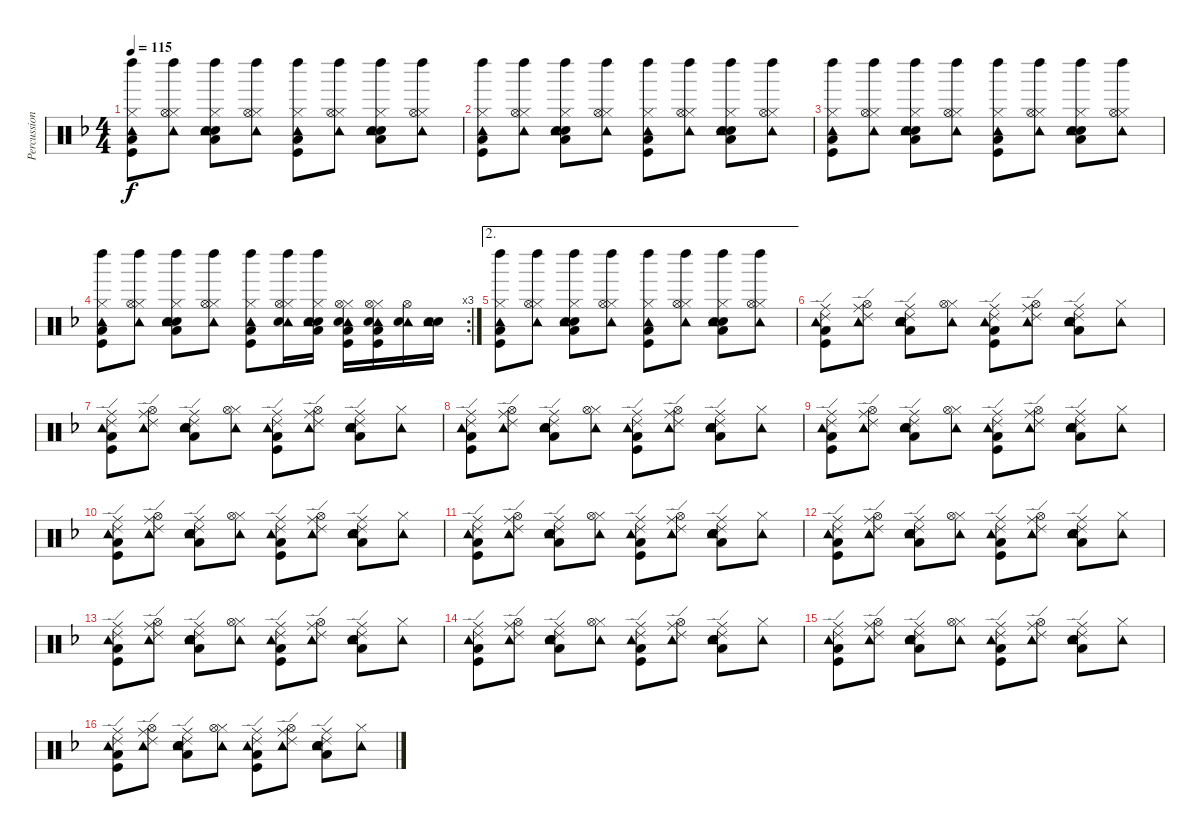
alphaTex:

\track ("Percussion" "Percussion") {instrument percussion}
\staff {score}
\articulation defaults
\ts (4 4)
\tempo 115
\clef neutral
\ks dminor
("Left Maraca (hit)" "Hi-Hat (closed)" "Tambourine (hit)" "Kick (hit)" "Low Floor Tom (hit)").8{dy f} ("Left Maraca (hit)" "Hi-Hat (closed)" "Hi-Hat (open)" "Tambourine (hit)").8 ("Left Maraca (hit)" "Hi-Hat (closed)" "Electric Snare (hit)" "Tambourine (hit)" "Snare (hit) 2" "Low Tom (hit)").8 ("Left Maraca (hit)" "Hi-Hat (closed)" "Hi-Hat (open)" "Tambourine (hit)").8 ("Left Maraca (hit)" "Hi-Hat (closed)" "Tambourine (hit)" "Kick (hit)" "Low Floor Tom (hit)").8 ("Left Maraca (hit)" "Hi-Hat (closed)" "Hi-Hat (open)" "Tambourine (hit)").8 ("Left Maraca (hit)" "Hi-Hat (closed)" "Electric Snare (hit)" "Tambourine (hit)" "Snare (hit) 2" "Low Tom (hit)").8 ("Left Maraca (hit)" "Hi-Hat (closed)" "Hi-Hat (open)" "Tambourine (hit)").8 |
("Left Maraca (hit)" "Hi-Hat (closed)" "Tambourine (hit)" "Kick (hit)" "Low Floor Tom (hit)").8 ("Left Maraca (hit)" "Hi-Hat (closed)" "Hi-Hat (open)" "Tambourine (hit)").8 ("Left Maraca (hit)" "Hi-Hat (closed)" "Electric Snare (hit)" "Tambourine (hit)" "Snare (hit) 2" "Low Tom (hit)").8 ("Left Maraca (hit)" "Hi-Hat (closed)" "Hi-Hat (open)" "Tambourine (hit)").8 ("Left Maraca (hit)" "Hi-Hat (closed)" "Tambourine (hit)" "Kick (hit)" "Low Floor Tom (hit)").8 ("Left Maraca (hit)" "Hi-Hat (closed)" "Hi-Hat (open)" "Tambourine (hit)").8 ("Left Maraca (hit)" "Hi-Hat (closed)" "Electric Snare (hit)" "Tambourine (hit)" "Snare (hit) 2" "Low Tom (hit)").8 ("Left Maraca (hit)" "Hi-Hat (closed)" "Hi-Hat (open)" "Tambourine (hit)").8 |
("Left Maraca (hit)" "Hi-Hat (closed)" "Tambourine (hit)" "Kick (hit)" "Low Floor Tom (hit)").8 ("Left Maraca (hit)" "Hi-Hat (closed)" "Hi-Hat (open)" "Tambourine (hit)").8 ("Left Maraca (hit)" "Hi-Hat (closed)" "Electric Snare (hit)" "Tambourine (hit)" "Snare (hit) 2" "Low Tom (hit)").8 ("Left Maraca (hit)" "Hi-Hat (closed)" "Hi-Hat (open)" "Tambourine (hit)").8 ("Left Maraca (hit)" "Hi-Hat (closed)" "Tambourine (hit)" "Kick (hit)" "Low Floor Tom (hit)").8 ("Left Maraca (hit)" "Hi-Hat (closed)" "Hi-Hat (open)" "Tambourine (hit)").8 ("Left Maraca (hit)" "Hi-Hat (closed)" "Electric Snare (hit)" "Tambourine (hit)" "Snare (hit) 2" "Low Tom (hit)").8 ("Left Maraca (hit)" "Hi-Hat (closed)" "Hi-Hat (open)" "Tambourine (hit)").8 |
\rc 3
("Left Maraca (hit)" "Hi-Hat (closed)" "Tambourine (hit)" "Kick (hit)" "Low Floor Tom (hit)").8 ("Left Maraca (hit)" "Hi-Hat (closed)" "Hi-Hat (open)" "Tambourine (hit)").8 ("Left Maraca (hit)" "Hi-Hat (closed)" "Electric Snare (hit)" "Tambourine (hit)" "Snare (hit) 2" "Low Tom (hit)").8 ("Left Maraca (hit)" "Hi-Hat (closed)" "Hi-Hat (open)" "Tambourine (hit)").8 ("Left Maraca (hit)" "Hi-Hat (closed)" "Tambourine (hit)" "Kick (hit)" "Low Floor Tom (hit)").8 ("Left Maraca (hit)" "Hi-Hat (closed)" "Hi-Hat (open)" "Tambourine (hit)" "Snare (hit) 2").16 ("Left Maraca (hit)" "Hi-Hat (closed)" "Electric Snare (hit)" "Tambourine (hit)" "Snare (hit) 2" "Low Tom (hit)").16 ("Kick (hit)" "Hi-Hat (closed)" "Hi-Hat (open)" "Tambourine (hit)" "Electric Snare (hit)" "Low Floor Tom (hit)").16 ("Kick (hit)" "Hi-Hat (closed)" "Hi-Hat (open)" "Tambourine (hit)" "Electric Snare (hit)" "Low Floor Tom (hit)").16 ("Hi-Hat (open)" "Tambourine (hit)" "Snare (hit) 2").16 ("Electric Snare (hit)" "Tambourine (hit)" "Snare (hit) 2").16 |
\ae 2
("Left Maraca (hit)" "Hi-Hat (closed)" "Tambourine (hit)" "Kick (hit)" "Low Floor Tom (hit)").8 ("Left Maraca (hit)" "Hi-Hat (closed)" "Hi-Hat (open)" "Tambourine (hit)").8 ("Left Maraca (hit)" "Hi-Hat (closed)" "Electric Snare (hit)" "Tambourine (hit)" "Snare (hit) 2" "Low Tom (hit)").8 ("Left Maraca (hit)" "Hi-Hat (closed)" "Hi-Hat (open)" "Tambourine (hit)").8 ("Left Maraca (hit)" "Hi-Hat (closed)" "Tambourine (hit)" "Kick (hit)" "Low Floor Tom (hit)").8 ("Left Maraca (hit)" "Hi-Hat (closed)" "Hi-Hat (open)" "Tambourine (hit)").8 ("Left Maraca (hit)" "Hi-Hat (closed)" "Electric Snare (hit)" "Tambourine (hit)" "Snare (hit) 2" "Low Tom (hit)").8 ("Left Maraca (hit)" "Hi-Hat (closed)" "Hi-Hat (open)" "Tambourine (hit)").8 |
("Ride (middle)" "Ride (edge) 2" "Tambourine (hit)" "Kick (hit)" "Low Floor Tom (hit)").8 ("Ride (middle)" "Ride (edge) 2" "Hi-Hat (open)" "Tambourine (hit)").8 ("Ride (middle)" "Ride (edge) 2" "Electric Snare (hit)" "Tambourine (hit)" "Snare (hit) 2" "Low Tom (hit)").8 ("Hi-Hat (closed)" "Hi-Hat (open)" "Tambourine (hit)").8 ("Ride (middle)" "Ride (edge) 2" "Tambourine (hit)" "Kick (hit)" "Low Floor Tom (hit)").8 ("Ride (middle)" "Ride (edge) 2" "Hi-Hat (open)" "Tambourine (hit)").8 ("Ride (middle)" "Ride (edge) 2" "Electric Snare (hit)" "Tambourine (hit)" "Snare (hit) 2" "Low Tom (hit)").8 ("Hi-Hat (closed)" "Tambourine (hit)").8 |
("Ride (middle)" "Ride (edge) 2" "Tambourine (hit)" "Kick (hit)" "Low Floor Tom (hit)").8 ("Ride (middle)" "Ride (edge) 2" "Hi-Hat (open)" "Tambourine (hit)").8 ("Ride (middle)" "Ride (edge) 2" "Electric Snare (hit)" "Tambourine (hit)" "Snare (hit) 2" "Low Tom (hit)").8 ("Hi-Hat (closed)" "Hi-Hat (open)" "Tambourine (hit)").8 ("Ride (middle)" "Ride (edge) 2" "Tambourine (hit)" "Kick (hit)" "Low Floor Tom (hit)").8 ("Ride (middle)" "Ride (edge) 2" "Hi-Hat (open)" "Tambourine (hit)").8 ("Ride (middle)" "Ride (edge) 2" "Electric Snare (hit)" "Tambourine (hit)" "Snare (hit) 2" "Low Tom (hit)").8 ("Hi-Hat (closed)" "Tambourine (hit)").8 |
("Ride (middle)" "Ride (edge) 2" "Tambourine (hit)" "Kick (hit)" "Low Floor Tom (hit)").8 ("Ride (middle)" "Ride (edge) 2" "Hi-Hat (open)" "Tambourine (hit)").8 ("Ride (middle)" "Ride (edge) 2" "Electric Snare (hit)" "Tambourine (hit)" "Snare (hit) 2" "Low Tom (hit)").8 ("Hi-Hat (closed)" "Hi-Hat (open)" "Tambourine (hit)").8 ("Ride (middle)" "Ride (edge) 2" "Tambourine (hit)" "Kick (hit)" "Low Floor Tom (hit)").8 ("Ride (middle)" "Ride (edge) 2" "Hi-Hat (open)" "Tambourine (hit)").8 ("Ride (middle)" "Ride (edge) 2" "Electric Snare (hit)" "Tambourine (hit)" "Snare (hit) 2" "Low Tom (hit)").8 ("Hi-Hat (closed)" "Tambourine (hit)").8 |
("Ride (middle)" "Ride (edge) 2" "Tambourine (hit)" "Kick (hit)" "Low Floor Tom (hit)").8 ("Ride (middle)" "Ride (edge) 2" "Hi-Hat (open)" "Tambourine (hit)").8 ("Ride (middle)" "Ride (edge) 2" "Electric Snare (hit)" "Tambourine (hit)" "Snare (hit) 2" "Low Tom (hit)").8 ("Hi-Hat (closed)" "Hi-Hat (open)" "Tambourine (hit)").8 ("Ride (middle)" "Ride (edge) 2" "Tambourine (hit)" "Kick (hit)" "Low Floor Tom (hit)").8 ("Ride (middle)" "Ride (edge) 2" "Hi-Hat (open)" "Tambourine (hit)").8 ("Ride (middle)" "Ride (edge) 2" "Electric Snare (hit)" "Tambourine (hit)" "Snare (hit) 2" "Low Tom (hit)").8 ("Hi-Hat (closed)" "Tambourine (hit)").8 |
("Ride (middle)" "Ride (edge) 2" "Tambourine (hit)" "Kick (hit)" "Low Floor Tom (hit)").8 ("Ride (middle)" "Ride (edge) 2" "Hi-Hat (open)" "Tambourine (hit)").8 ("Ride (middle)" "Ride (edge) 2" "Electric Snare (hit)" "Tambourine (hit)" "Snare (hit) 2" "Low Tom (hit)").8 ("Hi-Hat (closed)" "Hi-Hat (open)" "Tambourine (hit)").8 ("Ride (middle)" "Ride (edge) 2" "Tambourine (hit)" "Kick (hit)" "Low Floor Tom (hit)").8 ("Ride (middle)" "Ride (edge) 2" "Hi-Hat (open)" "Tambourine (hit)").8 ("Ride (middle)" "Ride (edge) 2" "Electric Snare (hit)" "Tambourine (hit)" "Snare (hit) 2" "Low Tom (hit)").8 ("Hi-Hat (closed)" "Tambourine (hit)").8 |
("Ride (middle)" "Ride (edge) 2" "Tambourine (hit)" "Kick (hit)" "Low Floor Tom (hit)").8 ("Ride (middle)" "Ride (edge) 2" "Hi-Hat (open)" "Tambourine (hit)").8 ("Ride (middle)" "Ride (edge) 2" "Electric Snare (hit)" "Tambourine (hit)" "Snare (hit) 2" "Low Tom (hit)").8 ("Hi-Hat (closed)" "Hi-Hat (open)" "Tambourine (hit)").8 ("Ride (middle)" "Ride (edge) 2" "Tambourine (hit)" "Kick (hit)" "Low Floor Tom (hit)").8 ("Ride (middle)" "Ride (edge) 2" "Hi-Hat (open)" "Tambourine (hit)").8 ("Ride (middle)" "Ride (edge) 2" "Electric Snare (hit)" "Tambourine (hit)" "Snare (hit) 2" "Low Tom (hit)").8 ("Hi-Hat (closed)" "Tambourine (hit)").8 |
("Ride (middle)" "Ride (edge) 2" "Tambourine (hit)" "Kick (hit)" "Low Floor Tom (hit)").8 ("Ride (middle)" "Ride (edge) 2" "Hi-Hat (open)" "Tambourine (hit)").8 ("Ride (middle)" "Ride (edge) 2" "Electric Snare (hit)" "Tambourine (hit)" "Snare (hit) 2" "Low Tom (hit)").8 ("Hi-Hat (closed)" "Hi-Hat (open)" "Tambourine (hit)").8 ("Ride (middle)" "Ride (edge) 2" "Tambourine (hit)" "Kick (hit)" "Low Floor Tom (hit)").8 ("Ride (middle)" "Ride (edge) 2" "Hi-Hat (open)" "Tambourine (hit)").8 ("Ride (middle)" "Ride (edge) 2" "Electric Snare (hit)" "Tambourine (hit)" "Snare (hit) 2" "Low Tom (hit)").8 ("Hi-Hat (closed)" "Tambourine (hit)").8 |
("Ride (middle)" "Ride (edge) 2" "Tambourine (hit)" "Kick (hit)" "Low Floor Tom (hit)").8 ("Ride (middle)" "Ride (edge) 2" "Hi-Hat (open)" "Tambourine (hit)").8 ("Ride (middle)" "Ride (edge) 2" "Electric Snare (hit)" "Tambourine (hit)" "Snare (hit) 2" "Low Tom (hit)").8 ("Hi-Hat (closed)" "Hi-Hat (open)" "Tambourine (hit)").8 ("Ride (middle)" "Ride (edge) 2" "Tambourine (hit)" "Kick (hit)" "Low Floor Tom (hit)").8 ("Ride (middle)" "Ride (edge) 2" "Hi-Hat (open)" "Tambourine (hit)").8 ("Ride (middle)" "Ride (edge) 2" "Electric Snare (hit)" "Tambourine (hit)" "Snare (hit) 2" "Low Tom (hit)").8 ("Hi-Hat (closed)" "Tambourine (hit)").8 |
("Ride (middle)" "Ride (edge) 2" "Tambourine (hit)" "Kick (hit)" "Low Floor Tom (hit)").8 ("Ride (middle)" "Ride (edge) 2" "Hi-Hat (open)" "Tambourine (hit)").8 ("Ride (middle)" "Ride (edge) 2" "Electric Snare (hit)" "Tambourine (hit)" "Snare (hit) 2" "Low Tom (hit)").8 ("Hi-Hat (closed)" "Hi-Hat (open)" "Tambourine (hit)").8 ("Ride (middle)" "Ride (edge) 2" "Tambourine (hit)" "Kick (hit)" "Low Floor Tom (hit)").8 ("Ride (middle)" "Ride (edge) 2" "Hi-Hat (open)" "Tambourine (hit)").8 ("Ride (middle)" "Ride (edge) 2" "Electric Snare (hit)" "Tambourine (hit)" "Snare (hit) 2" "Low Tom (hit)").8 ("Hi-Hat (closed)" "Tambourine (hit)").8 |
("Ride (middle)" "Ride (edge) 2" "Tambourine (hit)" "Kick (hit)" "Low Floor Tom (hit)").8 ("Ride (middle)" "Ride (edge) 2" "Hi-Hat (open)" "Tambourine (hit)").8 ("Ride (middle)" "Ride (edge) 2" "Electric Snare (hit)" "Tambourine (hit)" "Snare (hit) 2" "Low Tom (hit)").8 ("Hi-Hat (closed)" "Hi-Hat (open)" "Tambourine (hit)").8 ("Ride (middle)" "Ride (edge) 2" "Tambourine (hit)" "Kick (hit)" "Low Floor Tom (hit)").8 ("Ride (middle)" "Ride (edge) 2" "Hi-Hat (open)" "Tambourine (hit)").8 ("Ride (middle)" "Ride (edge) 2" "Electric Snare (hit)" "Tambourine (hit)" "Snare (hit) 2" "Low Tom (hit)").8 ("Hi-Hat (closed)" "Tambourine (hit)").8 |
("Ride (middle)" "Ride (edge) 2" "Tambourine (hit)" "Kick (hit)" "Low Floor Tom (hit)").8 ("Ride (middle)" "Ride (edge) 2" "Hi-Hat (open)" "Tambourine (hit)").8 ("Ride (middle)" "Ride (edge) 2" "Electric Snare (hit)" "Tambourine (hit)" "Snare (hit) 2" "Low Tom (hit)").8 ("Hi-Hat (closed)" "Hi-Hat (open)" "Tambourine (hit)").8 ("Ride (middle)" "Ride (edge) 2" "Tambourine (hit)" "Kick (hit)" "Low Floor Tom (hit)").8 ("Ride (middle)" "Ride (edge) 2" "Hi-Hat (open)" "Tambourine (hit)").8 ("Ride (middle)" "Ride (edge) 2" "Electric Snare (hit)" "Tambourine (hit)" "Snare (hit) 2" "Low Tom (hit)").8 ("Hi-Hat (closed)" "Tambourine (hit)").8
